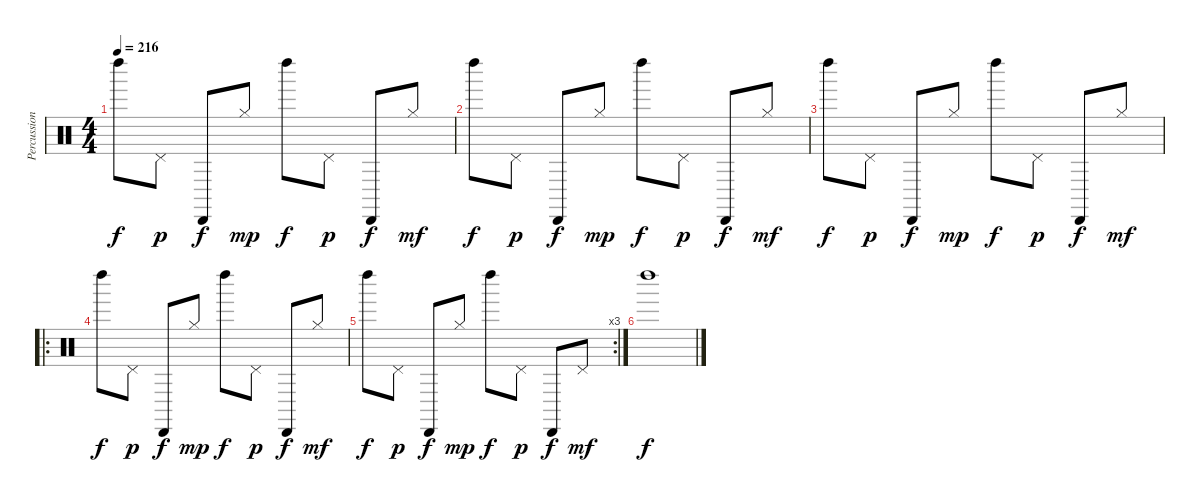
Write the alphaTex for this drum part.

\track ("Percussions" "Percussion") {instrument percussion}
\staff {score}
\articulation defaults
\ts (4 4)
\tempo 216
\clef neutral
\ks c "Left Maraca (hit)".8{dy f} "Pedal Hi-Hat (hit)".8{dy p} "Cabasa (hit)".8{dy f} "Hi-Hat (closed)".8{dy mp} "Left Maraca (hit)".8{dy f} "Pedal Hi-Hat (hit)".8{dy p} "Cabasa (hit)".8{dy f} "Hi-Hat (closed)".8{dy mf}
|
"Left Maraca (hit)".8{dy f} "Pedal Hi-Hat (hit)".8{dy p} "Cabasa (hit)".8{dy f} "Hi-Hat (closed)".8{dy mp} "Left Maraca (hit)".8{dy f} "Pedal Hi-Hat (hit)".8{dy p} "Cabasa (hit)".8{dy f} "Hi-Hat (closed)".8{dy mf} |
"Left Maraca (hit)".8{dy f} "Pedal Hi-Hat (hit)".8{dy p} "Cabasa (hit)".8{dy f} "Hi-Hat (closed)".8{dy mp} "Left Maraca (hit)".8{dy f} "Pedal Hi-Hat (hit)".8{dy p} "Cabasa (hit)".8{dy f} "Hi-Hat (closed)".8{dy mf} |
\ro "Left Maraca (hit)".8{dy f} "Pedal Hi-Hat (hit)".8{dy p} "Cabasa (hit)".8{dy f} "Hi-Hat (closed)".8{dy mp} "Left Maraca (hit)".8{dy f} "Pedal Hi-Hat (hit)".8{dy p} "Cabasa (hit)".8{dy f} "Hi-Hat (closed)".8{dy mf}
|
\rc 3 "Left Maraca (hit)".8{dy f} "Pedal Hi-Hat (hit)".8{dy p} "Cabasa (hit)".8{dy f} "Hi-Hat (closed)".8{dy mp} "Left Maraca (hit)".8{dy f} "Pedal Hi-Hat (hit)".8{dy p} "Cabasa (hit)".8{dy f} "Pedal Hi-Hat (hit)".8{dy mf}
|
"Left Maraca (hit)".1{dy f}
